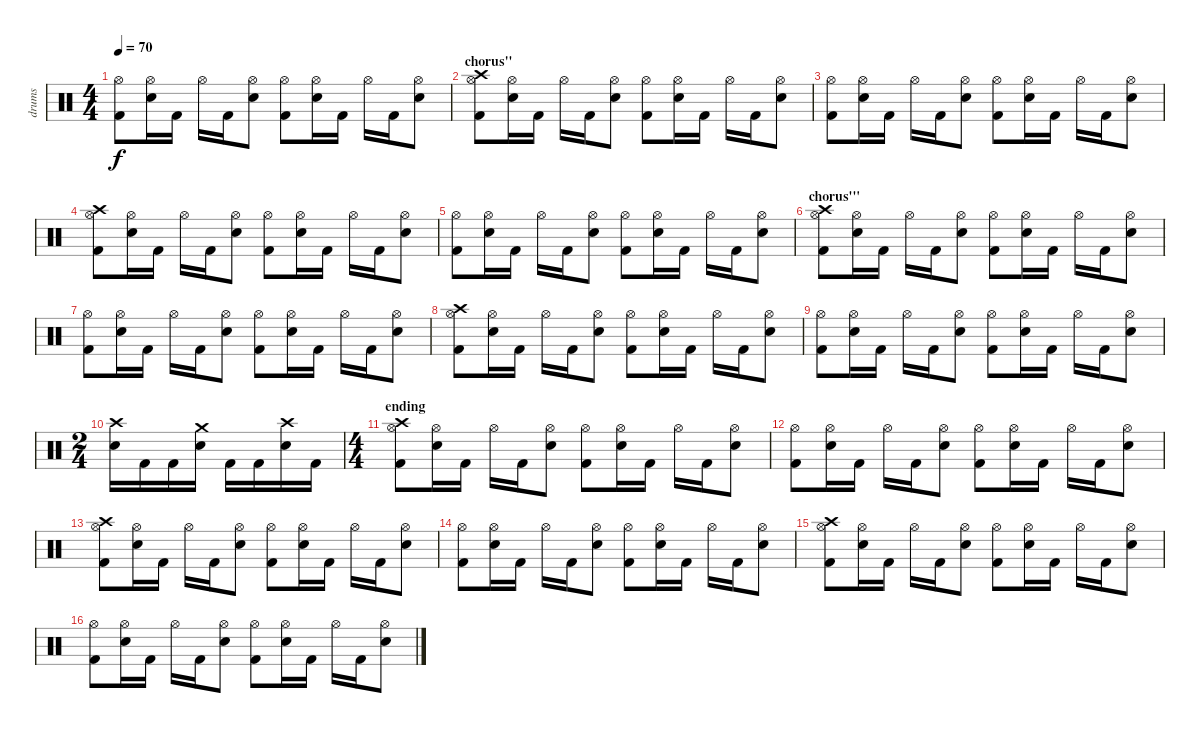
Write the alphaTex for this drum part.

\track ("drums" "drums") {instrument percussion}
\staff {score}
\articulation defaults
\ts (4 4)
\tempo 70
\clef neutral
\ks c
("Hi-Hat (open)" "Kick (hit) 2").8{dy f} ("Hi-Hat (open)" "Snare (hit) 2").16 "Kick (hit) 2".16 "Hi-Hat (open)".16 "Kick (hit) 2".16 ("Hi-Hat (open)" "Snare (hit) 2").8 ("Hi-Hat (open)" "Kick (hit) 2").8 ("Hi-Hat (open)" "Snare (hit) 2").16 "Kick (hit) 2".16 "Hi-Hat (open)".16 "Kick (hit) 2".16 ("Hi-Hat (open)" "Snare (hit) 2").8 |
\section ("" "chorus''")
("Crash high (hit)" "Hi-Hat (open)" "Kick (hit) 2").8 ("Hi-Hat (open)" "Snare (hit) 2").16 "Kick (hit) 2".16 "Hi-Hat (open)".16 "Kick (hit) 2".16 ("Hi-Hat (open)" "Snare (hit) 2").8 ("Hi-Hat (open)" "Kick (hit) 2").8 ("Hi-Hat (open)" "Snare (hit) 2").16 "Kick (hit) 2".16 "Hi-Hat (open)".16 "Kick (hit) 2".16 ("Hi-Hat (open)" "Snare (hit) 2").8 |
("Hi-Hat (open)" "Kick (hit) 2").8 ("Hi-Hat (open)" "Snare (hit) 2").16 "Kick (hit) 2".16 "Hi-Hat (open)".16 "Kick (hit) 2".16 ("Hi-Hat (open)" "Snare (hit) 2").8 ("Hi-Hat (open)" "Kick (hit) 2").8 ("Hi-Hat (open)" "Snare (hit) 2").16 "Kick (hit) 2".16 "Hi-Hat (open)".16 "Kick (hit) 2".16 ("Hi-Hat (open)" "Snare (hit) 2").8 |
("Crash high (hit)" "Hi-Hat (open)" "Kick (hit) 2").8 ("Hi-Hat (open)" "Snare (hit) 2").16 "Kick (hit) 2".16 "Hi-Hat (open)".16 "Kick (hit) 2".16 ("Hi-Hat (open)" "Snare (hit) 2").8 ("Hi-Hat (open)" "Kick (hit) 2").8 ("Hi-Hat (open)" "Snare (hit) 2").16 "Kick (hit) 2".16 "Hi-Hat (open)".16 "Kick (hit) 2".16 ("Hi-Hat (open)" "Snare (hit) 2").8 |
("Hi-Hat (open)" "Kick (hit) 2").8 ("Hi-Hat (open)" "Snare (hit) 2").16 "Kick (hit) 2".16 "Hi-Hat (open)".16 "Kick (hit) 2".16 ("Hi-Hat (open)" "Snare (hit) 2").8 ("Hi-Hat (open)" "Kick (hit) 2").8 ("Hi-Hat (open)" "Snare (hit) 2").16 "Kick (hit) 2".16 "Hi-Hat (open)".16 "Kick (hit) 2".16 ("Hi-Hat (open)" "Snare (hit) 2").8 |
\section ("" "chorus'''")
("Crash high (hit)" "Hi-Hat (open)" "Kick (hit) 2").8 ("Hi-Hat (open)" "Snare (hit) 2").16 "Kick (hit) 2".16 "Hi-Hat (open)".16 "Kick (hit) 2".16 ("Hi-Hat (open)" "Snare (hit) 2").8 ("Hi-Hat (open)" "Kick (hit) 2").8 ("Hi-Hat (open)" "Snare (hit) 2").16 "Kick (hit) 2".16 "Hi-Hat (open)".16 "Kick (hit) 2".16 ("Hi-Hat (open)" "Snare (hit) 2").8 |
("Hi-Hat (open)" "Kick (hit) 2").8 ("Hi-Hat (open)" "Snare (hit) 2").16 "Kick (hit) 2".16 "Hi-Hat (open)".16 "Kick (hit) 2".16 ("Hi-Hat (open)" "Snare (hit) 2").8 ("Hi-Hat (open)" "Kick (hit) 2").8 ("Hi-Hat (open)" "Snare (hit) 2").16 "Kick (hit) 2".16 "Hi-Hat (open)".16 "Kick (hit) 2".16 ("Hi-Hat (open)" "Snare (hit) 2").8 |
("Crash high (hit)" "Hi-Hat (open)" "Kick (hit) 2").8 ("Hi-Hat (open)" "Snare (hit) 2").16 "Kick (hit) 2".16 "Hi-Hat (open)".16 "Kick (hit) 2".16 ("Hi-Hat (open)" "Snare (hit) 2").8 ("Hi-Hat (open)" "Kick (hit) 2").8 ("Hi-Hat (open)" "Snare (hit) 2").16 "Kick (hit) 2".16 "Hi-Hat (open)".16 "Kick (hit) 2".16 ("Hi-Hat (open)" "Snare (hit) 2").8 |
("Hi-Hat (open)" "Kick (hit) 2").8 ("Hi-Hat (open)" "Snare (hit) 2").16 "Kick (hit) 2".16 "Hi-Hat (open)".16 "Kick (hit) 2".16 ("Hi-Hat (open)" "Snare (hit) 2").8 ("Hi-Hat (open)" "Kick (hit) 2").8 ("Hi-Hat (open)" "Snare (hit) 2").16 "Kick (hit) 2".16 "Hi-Hat (open)".16 "Kick (hit) 2".16 ("Hi-Hat (open)" "Snare (hit) 2").8 |
\ts (2 4)
("Crash high (hit)" "Snare (hit) 2").16 "Kick (hit) 2".16 "Kick (hit) 2".16 ("Crash medium (hit)" "Snare (hit) 2").16 "Kick (hit) 2".16 "Kick (hit) 2".16 ("Crash high (hit)" "Snare (hit) 2").16 "Kick (hit) 2".16 |
\ts (4 4)
\section ("" "ending")
("Crash high (hit)" "Hi-Hat (open)" "Kick (hit) 2").8 ("Hi-Hat (open)" "Snare (hit) 2").16 "Kick (hit) 2".16 "Hi-Hat (open)".16 "Kick (hit) 2".16 ("Hi-Hat (open)" "Snare (hit) 2").8 ("Hi-Hat (open)" "Kick (hit) 2").8 ("Hi-Hat (open)" "Snare (hit) 2").16 "Kick (hit) 2".16 "Hi-Hat (open)".16 "Kick (hit) 2".16 ("Hi-Hat (open)" "Snare (hit) 2").8 |
("Hi-Hat (open)" "Kick (hit) 2").8 ("Hi-Hat (open)" "Snare (hit) 2").16 "Kick (hit) 2".16 "Hi-Hat (open)".16 "Kick (hit) 2".16 ("Hi-Hat (open)" "Snare (hit) 2").8 ("Hi-Hat (open)" "Kick (hit) 2").8 ("Hi-Hat (open)" "Snare (hit) 2").16 "Kick (hit) 2".16 "Hi-Hat (open)".16 "Kick (hit) 2".16 ("Hi-Hat (open)" "Snare (hit) 2").8 |
("Crash high (hit)" "Hi-Hat (open)" "Kick (hit) 2").8 ("Hi-Hat (open)" "Snare (hit) 2").16 "Kick (hit) 2".16 "Hi-Hat (open)".16 "Kick (hit) 2".16 ("Hi-Hat (open)" "Snare (hit) 2").8 ("Hi-Hat (open)" "Kick (hit) 2").8 ("Hi-Hat (open)" "Snare (hit) 2").16 "Kick (hit) 2".16 "Hi-Hat (open)".16 "Kick (hit) 2".16 ("Hi-Hat (open)" "Snare (hit) 2").8 |
("Hi-Hat (open)" "Kick (hit) 2").8 ("Hi-Hat (open)" "Snare (hit) 2").16 "Kick (hit) 2".16 "Hi-Hat (open)".16 "Kick (hit) 2".16 ("Hi-Hat (open)" "Snare (hit) 2").8 ("Hi-Hat (open)" "Kick (hit) 2").8 ("Hi-Hat (open)" "Snare (hit) 2").16 "Kick (hit) 2".16 "Hi-Hat (open)".16 "Kick (hit) 2".16 ("Hi-Hat (open)" "Snare (hit) 2").8 |
("Crash high (hit)" "Hi-Hat (open)" "Kick (hit) 2").8 ("Hi-Hat (open)" "Snare (hit) 2").16 "Kick (hit) 2".16 "Hi-Hat (open)".16 "Kick (hit) 2".16 ("Hi-Hat (open)" "Snare (hit) 2").8 ("Hi-Hat (open)" "Kick (hit) 2").8 ("Hi-Hat (open)" "Snare (hit) 2").16 "Kick (hit) 2".16 "Hi-Hat (open)".16 "Kick (hit) 2".16 ("Hi-Hat (open)" "Snare (hit) 2").8 |
("Hi-Hat (open)" "Kick (hit) 2").8 ("Hi-Hat (open)" "Snare (hit) 2").16 "Kick (hit) 2".16 "Hi-Hat (open)".16 "Kick (hit) 2".16 ("Hi-Hat (open)" "Snare (hit) 2").8 ("Hi-Hat (open)" "Kick (hit) 2").8 ("Hi-Hat (open)" "Snare (hit) 2").16 "Kick (hit) 2".16 "Hi-Hat (open)".16 "Kick (hit) 2".16 ("Hi-Hat (open)" "Snare (hit) 2").8
